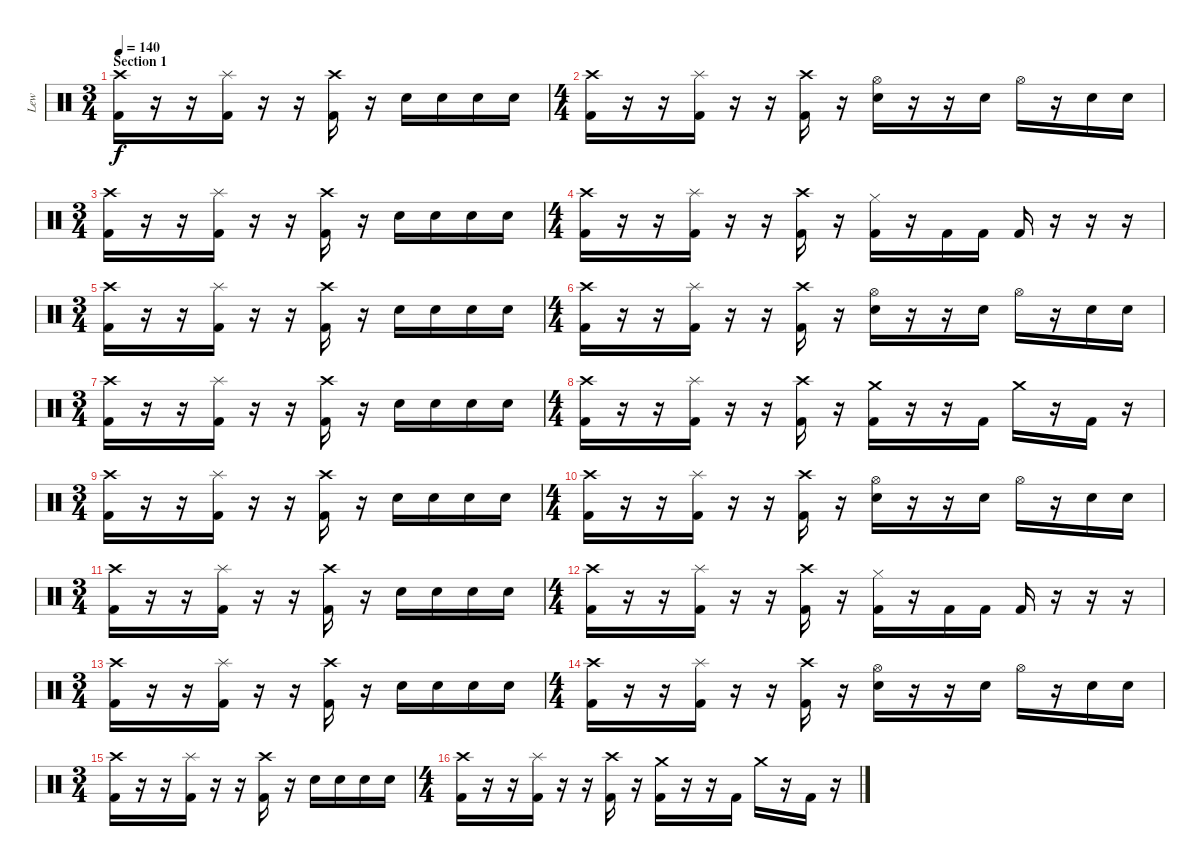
\track ("Lew" "Lew") {instrument percussion}
\staff {score}
\articulation defaults
\ts (3 4)
\section ("" "Section 1")
\tempo 140
\clef neutral
\ks c
("Crash high (hit)" "Kick (hit) 2").16{dy f} r.16 r.16 ("Splash (hit)" "Kick (hit) 2").16 r.16 r.16 ("Crash high (hit)" "Kick (hit) 2").16 r.16 "Electric Snare (hit)".16 "Electric Snare (hit)".16 "Electric Snare (hit)".16 "Electric Snare (hit)".16 |
\ts (4 4)
("Crash high (hit)" "Kick (hit) 2").16 r.16 r.16 ("Splash (hit)" "Kick (hit) 2").16 r.16 r.16 ("Crash high (hit)" "Kick (hit) 2").16 r.16 ("Hi-Hat (open)" "Electric Snare (hit)").16 r.16 r.16 "Electric Snare (hit)".16 "Hi-Hat (open)".16 r.16 "Electric Snare (hit)".16 "Electric Snare (hit)".16 |
\ts (3 4)
("Crash high (hit)" "Kick (hit) 2").16 r.16 r.16 ("Splash (hit)" "Kick (hit) 2").16 r.16 r.16 ("Crash high (hit)" "Kick (hit) 2").16 r.16 "Electric Snare (hit)".16 "Electric Snare (hit)".16 "Electric Snare (hit)".16 "Electric Snare (hit)".16 |
\ts (4 4)
("Crash high (hit)" "Kick (hit) 2").16 r.16 r.16 ("Splash (hit)" "Kick (hit) 2").16 r.16 r.16 ("Crash high (hit)" "Kick (hit) 2").16 r.16 ("Hi-Hat (closed)" "Kick (hit) 2").16 r.16 "Kick (hit) 2".16 "Kick (hit) 2".16 "Kick (hit) 2".16 r.16 r.16 r.16 |
\ts (3 4)
("Crash high (hit)" "Kick (hit) 2").16 r.16 r.16 ("Splash (hit)" "Kick (hit) 2").16 r.16 r.16 ("Crash high (hit)" "Kick (hit) 2").16 r.16 "Electric Snare (hit)".16 "Electric Snare (hit)".16 "Electric Snare (hit)".16 "Electric Snare (hit)".16 |
\ts (4 4)
("Crash high (hit)" "Kick (hit) 2").16 r.16 r.16 ("Splash (hit)" "Kick (hit) 2").16 r.16 r.16 ("Crash high (hit)" "Kick (hit) 2").16 r.16 ("Hi-Hat (open)" "Electric Snare (hit)").16 r.16 r.16 "Electric Snare (hit)".16 "Hi-Hat (open)".16 r.16 "Electric Snare (hit)".16 "Electric Snare (hit)".16 |
\ts (3 4)
("Crash high (hit)" "Kick (hit) 2").16 r.16 r.16 ("Splash (hit)" "Kick (hit) 2").16 r.16 r.16 ("Crash high (hit)" "Kick (hit) 2").16 r.16 "Electric Snare (hit)".16 "Electric Snare (hit)".16 "Electric Snare (hit)".16 "Electric Snare (hit)".16 |
\ts (4 4)
("Crash high (hit)" "Kick (hit) 2").16 r.16 r.16 ("Splash (hit)" "Kick (hit) 2").16 r.16 r.16 ("Crash high (hit)" "Kick (hit) 2").16 r.16 ("Crash medium (hit)" "Kick (hit) 2").16 r.16 r.16 "Kick (hit) 2".16 "Crash medium (hit)".16 r.16 "Kick (hit) 2".16 r.16 |
\ts (3 4)
("Crash high (hit)" "Kick (hit) 2").16 r.16 r.16 ("Splash (hit)" "Kick (hit) 2").16 r.16 r.16 ("Crash high (hit)" "Kick (hit) 2").16 r.16 "Electric Snare (hit)".16 "Electric Snare (hit)".16 "Electric Snare (hit)".16 "Electric Snare (hit)".16 |
\ts (4 4)
("Crash high (hit)" "Kick (hit) 2").16 r.16 r.16 ("Splash (hit)" "Kick (hit) 2").16 r.16 r.16 ("Crash high (hit)" "Kick (hit) 2").16 r.16 ("Hi-Hat (open)" "Electric Snare (hit)").16 r.16 r.16 "Electric Snare (hit)".16 "Hi-Hat (open)".16 r.16 "Electric Snare (hit)".16 "Electric Snare (hit)".16 |
\ts (3 4)
("Crash high (hit)" "Kick (hit) 2").16 r.16 r.16 ("Splash (hit)" "Kick (hit) 2").16 r.16 r.16 ("Crash high (hit)" "Kick (hit) 2").16 r.16 "Electric Snare (hit)".16 "Electric Snare (hit)".16 "Electric Snare (hit)".16 "Electric Snare (hit)".16 |
\ts (4 4)
("Crash high (hit)" "Kick (hit) 2").16 r.16 r.16 ("Splash (hit)" "Kick (hit) 2").16 r.16 r.16 ("Crash high (hit)" "Kick (hit) 2").16 r.16 ("Hi-Hat (closed)" "Kick (hit) 2").16 r.16 "Kick (hit) 2".16 "Kick (hit) 2".16 "Kick (hit) 2".16 r.16 r.16 r.16 |
\ts (3 4)
("Crash high (hit)" "Kick (hit) 2").16 r.16 r.16 ("Splash (hit)" "Kick (hit) 2").16 r.16 r.16 ("Crash high (hit)" "Kick (hit) 2").16 r.16 "Electric Snare (hit)".16 "Electric Snare (hit)".16 "Electric Snare (hit)".16 "Electric Snare (hit)".16 |
\ts (4 4)
("Crash high (hit)" "Kick (hit) 2").16 r.16 r.16 ("Splash (hit)" "Kick (hit) 2").16 r.16 r.16 ("Crash high (hit)" "Kick (hit) 2").16 r.16 ("Hi-Hat (open)" "Electric Snare (hit)").16 r.16 r.16 "Electric Snare (hit)".16 "Hi-Hat (open)".16 r.16 "Electric Snare (hit)".16 "Electric Snare (hit)".16 |
\ts (3 4)
("Crash high (hit)" "Kick (hit) 2").16 r.16 r.16 ("Splash (hit)" "Kick (hit) 2").16 r.16 r.16 ("Crash high (hit)" "Kick (hit) 2").16 r.16 "Electric Snare (hit)".16 "Electric Snare (hit)".16 "Electric Snare (hit)".16 "Electric Snare (hit)".16 |
\ts (4 4)
("Crash high (hit)" "Kick (hit) 2").16 r.16 r.16 ("Splash (hit)" "Kick (hit) 2").16 r.16 r.16 ("Crash high (hit)" "Kick (hit) 2").16 r.16 ("Crash medium (hit)" "Kick (hit) 2").16 r.16 r.16 "Kick (hit) 2".16 "Crash medium (hit)".16 r.16 "Kick (hit) 2".16 r.16
